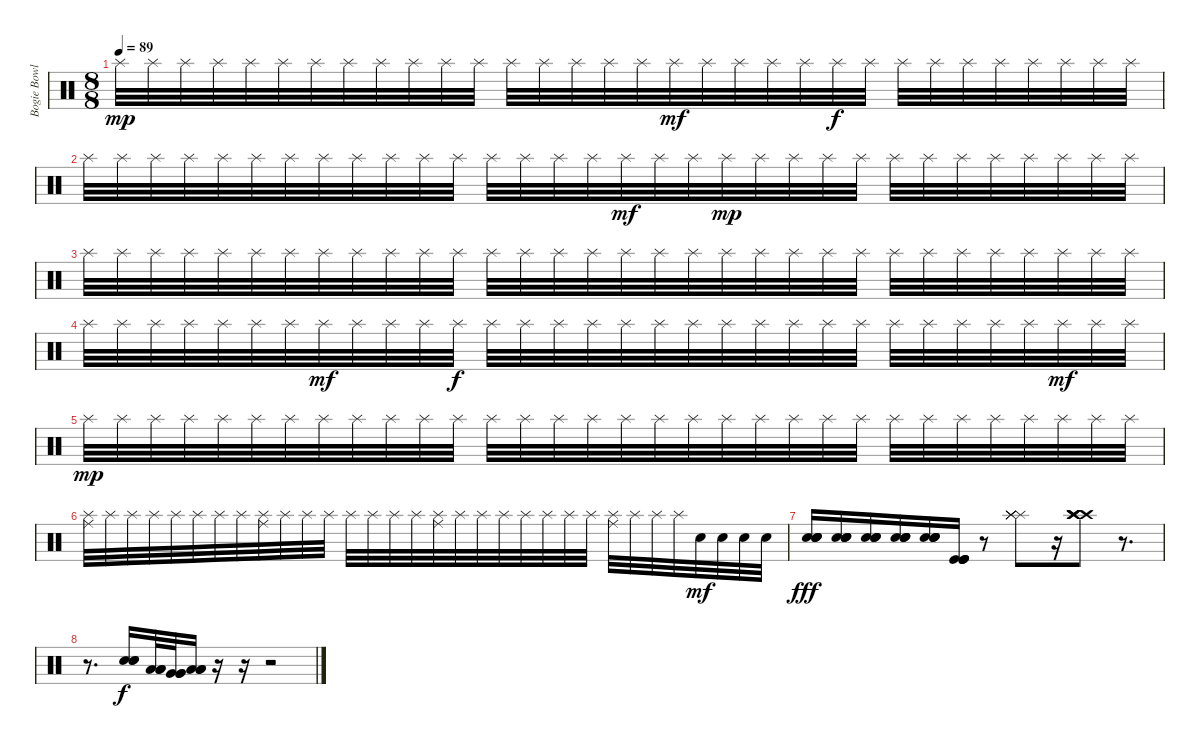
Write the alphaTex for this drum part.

\track ("Bogie Bowles Drums" "Bogie Bowl") {instrument percussion}
\staff {score}
\articulation defaults
\ts (8 8)
\tempo 89
\clef neutral
\ks c "Splash (hit)".32{dy mp} "Splash (hit)".32 "Splash (hit)".32 "Splash (hit)".32 "Splash (hit)".32 "Splash (hit)".32 "Splash (hit)".32 "Splash (hit)".32 "Splash (hit)".32 "Splash (hit)".32 "Splash (hit)".32 "Splash (hit)".32 "Splash (hit)".32 "Splash (hit)".32 "Splash (hit)".32 "Splash (hit)".32 "Splash (hit)".32 "Splash (hit)".32{dy mf} "Splash (hit)".32 "Splash (hit)".32 "Splash (hit)".32 "Splash (hit)".32 "Splash (hit)".32{dy f} "Splash (hit)".32 "Splash (hit)".32 "Splash (hit)".32 "Splash (hit)".32 "Splash (hit)".32 "Splash (hit)".32 "Splash (hit)".32 "Splash (hit)".32 "Splash (hit)".32
|
"Splash (hit)".32 "Splash (hit)".32 "Splash (hit)".32 "Splash (hit)".32 "Splash (hit)".32 "Splash (hit)".32 "Splash (hit)".32 "Splash (hit)".32 "Splash (hit)".32 "Splash (hit)".32 "Splash (hit)".32 "Splash (hit)".32 "Splash (hit)".32 "Splash (hit)".32 "Splash (hit)".32 "Splash (hit)".32 "Splash (hit)".32{dy mf} "Splash (hit)".32 "Splash (hit)".32 "Splash (hit)".32{dy mp} "Splash (hit)".32 "Splash (hit)".32 "Splash (hit)".32 "Splash (hit)".32 "Splash (hit)".32 "Splash (hit)".32 "Splash (hit)".32 "Splash (hit)".32 "Splash (hit)".32 "Splash (hit)".32 "Splash (hit)".32 "Splash (hit)".32 |
"Splash (hit)".32 "Splash (hit)".32 "Splash (hit)".32 "Splash (hit)".32 "Splash (hit)".32 "Splash (hit)".32 "Splash (hit)".32 "Splash (hit)".32 "Splash (hit)".32 "Splash (hit)".32 "Splash (hit)".32 "Splash (hit)".32 "Splash (hit)".32 "Splash (hit)".32 "Splash (hit)".32 "Splash (hit)".32 "Splash (hit)".32 "Splash (hit)".32 "Splash (hit)".32 "Splash (hit)".32 "Splash (hit)".32 "Splash (hit)".32 "Splash (hit)".32 "Splash (hit)".32 "Splash (hit)".32 "Splash (hit)".32 "Splash (hit)".32 "Splash (hit)".32 "Splash (hit)".32 "Splash (hit)".32 "Splash (hit)".32 "Splash (hit)".32 |
"Splash (hit)".32 "Splash (hit)".32 "Splash (hit)".32 "Splash (hit)".32 "Splash (hit)".32 "Splash (hit)".32 "Splash (hit)".32 "Splash (hit)".32{dy mf} "Splash (hit)".32 "Splash (hit)".32 "Splash (hit)".32 "Splash (hit)".32{dy f} "Splash (hit)".32 "Splash (hit)".32 "Splash (hit)".32 "Splash (hit)".32 "Splash (hit)".32 "Splash (hit)".32 "Splash (hit)".32 "Splash (hit)".32 "Splash (hit)".32 "Splash (hit)".32 "Splash (hit)".32 "Splash (hit)".32 "Splash (hit)".32 "Splash (hit)".32 "Splash (hit)".32 "Splash (hit)".32 "Splash (hit)".32 "Splash (hit)".32{dy mf} "Splash (hit)".32 "Splash (hit)".32 |
"Splash (hit)".32{dy mp} "Splash (hit)".32 "Splash (hit)".32 "Splash (hit)".32 "Splash (hit)".32 "Splash (hit)".32 "Splash (hit)".32 "Splash (hit)".32 "Splash (hit)".32 "Splash (hit)".32 "Splash (hit)".32 "Splash (hit)".32 "Splash (hit)".32 "Splash (hit)".32 "Splash (hit)".32 "Splash (hit)".32 "Splash (hit)".32 "Splash (hit)".32 "Splash (hit)".32 "Splash (hit)".32 "Splash (hit)".32 "Splash (hit)".32 "Splash (hit)".32 "Splash (hit)".32 "Splash (hit)".32 "Splash (hit)".32 "Splash (hit)".32 "Splash (hit)".32 "Splash (hit)".32 "Splash (hit)".32 "Splash (hit)".32 "Splash (hit)".32 |
("Splash (hit)" "Ride (middle)").32 "Splash (hit)".32 "Splash (hit)".32 "Splash (hit)".32 "Splash (hit)".32 "Splash (hit)".32 "Splash (hit)".32 "Splash (hit)".32 ("Splash (hit)" "Ride (middle)").32 "Splash (hit)".32 "Splash (hit)".32 "Splash (hit)".32 "Splash (hit)".32 "Splash (hit)".32 "Splash (hit)".32 "Splash (hit)".32 ("Splash (hit)" "Ride (middle)").32 "Splash (hit)".32 "Splash (hit)".32 "Splash (hit)".32 "Splash (hit)".32 "Splash (hit)".32 "Splash (hit)".32 "Splash (hit)".32 ("Splash (hit)" "Ride (middle)").32 "Splash (hit)".32 "Splash (hit)".32 "Splash (hit)".32 "Snare (hit) 2".32{dy mf} "Snare (hit) 2".32 "Snare (hit) 2".32 "Snare (hit) 2".32 |
("Snare (hit) 2" "Snare (hit) 2" "Snare (hit) 2" "Snare (hit) 2").16{dy fff} ("Snare (hit) 2" "Snare (hit) 2" "Snare (hit) 2" "Snare (hit) 2").16 ("Snare (hit) 2" "Snare (hit) 2" "Snare (hit) 2" "Snare (hit) 2").16 ("Snare (hit) 2" "Snare (hit) 2" "Snare (hit) 2" "Snare (hit) 2").16 ("Snare (hit) 2" "Snare (hit) 2" "Snare (hit) 2" "Snare (hit) 2").16 ("Kick (hit)" "Kick (hit)" "Kick (hit)" "Kick (hit)").16 r.8 ("Splash (hit)" "Splash (hit)" "Splash (hit)" "Splash (hit)").8 r.16 ("Crash high (hit)" "Crash high (hit)" "Crash high (hit)" "Crash high (hit)").8 r.8{d} |
r.8{d} ("Snare (hit) 2" "Snare (hit) 2" "Snare (hit) 2").16{dy f} ("Low Tom (hit)" "Low Tom (hit)" "Low Tom (hit)").32 ("Very Low Tom (hit)" "Very Low Tom (hit)" "Very Low Tom (hit)").32 ("Low Floor Tom (hit)" "Low Floor Tom (hit)" "Low Floor Tom (hit)").16 r.16 r.16 r.2
